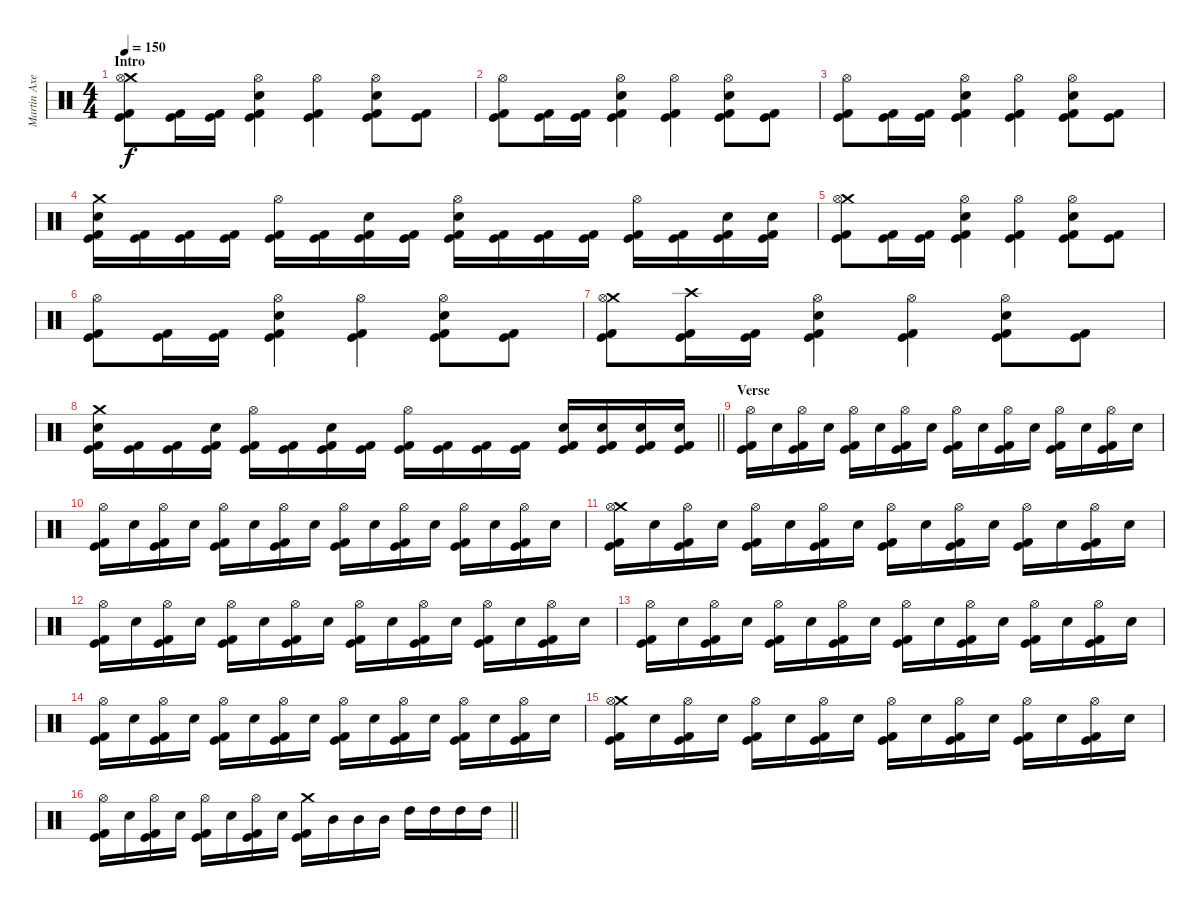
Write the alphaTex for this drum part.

\track ("Martin Axenrot" "Martin Axe") {instrument percussion}
\staff {score}
\articulation defaults
\ts (4 4)
\section ("" "Intro")
\tempo 150
\clef neutral
\ks c
("Crash medium (hit)" "Hi-Hat (open)" "Kick (hit) 2" "Kick (hit)").8{dy f} ("Kick (hit) 2" "Kick (hit)").16 ("Kick (hit) 2" "Kick (hit)").16 ("Hi-Hat (open)" "Electric Snare (hit)" "Kick (hit) 2" "Kick (hit)").4 ("Hi-Hat (open)" "Kick (hit) 2" "Kick (hit)").4 ("Hi-Hat (open)" "Electric Snare (hit)" "Kick (hit) 2" "Kick (hit)").8 ("Kick (hit) 2" "Kick (hit)").8 |
("Hi-Hat (open)" "Kick (hit) 2" "Kick (hit)").8 ("Kick (hit) 2" "Kick (hit)").16 ("Kick (hit) 2" "Kick (hit)").16 ("Hi-Hat (open)" "Electric Snare (hit)" "Kick (hit) 2" "Kick (hit)").4 ("Hi-Hat (open)" "Kick (hit) 2" "Kick (hit)").4 ("Hi-Hat (open)" "Electric Snare (hit)" "Kick (hit) 2" "Kick (hit)").8 ("Kick (hit) 2" "Kick (hit)").8 |
("Hi-Hat (open)" "Kick (hit) 2" "Kick (hit)").8 ("Kick (hit) 2" "Kick (hit)").16 ("Kick (hit) 2" "Kick (hit)").16 ("Hi-Hat (open)" "Electric Snare (hit)" "Kick (hit) 2" "Kick (hit)").4 ("Hi-Hat (open)" "Kick (hit) 2" "Kick (hit)").4 ("Hi-Hat (open)" "Electric Snare (hit)" "Kick (hit) 2" "Kick (hit)").8 ("Kick (hit) 2" "Kick (hit)").8 |
("Crash medium (hit)" "Electric Snare (hit)" "Kick (hit) 2" "Kick (hit)").16 ("Kick (hit) 2" "Kick (hit)").16 ("Kick (hit) 2" "Kick (hit)").16 ("Kick (hit) 2" "Kick (hit)").16 ("Hi-Hat (open)" "Kick (hit) 2" "Kick (hit)").16 ("Kick (hit) 2" "Kick (hit)").16 ("Electric Snare (hit)" "Kick (hit) 2" "Kick (hit)").16 ("Kick (hit) 2" "Kick (hit)").16 ("Hi-Hat (open)" "Electric Snare (hit)" "Kick (hit) 2" "Kick (hit)").16 ("Kick (hit) 2" "Kick (hit)").16 ("Kick (hit) 2" "Kick (hit)").16 ("Kick (hit) 2" "Kick (hit)").16 ("Hi-Hat (open)" "Kick (hit) 2" "Kick (hit)").16 ("Kick (hit) 2" "Kick (hit)").16 ("Electric Snare (hit)" "Kick (hit) 2" "Kick (hit)").16 ("Electric Snare (hit)" "Kick (hit) 2" "Kick (hit)").16 |
("Crash medium (hit)" "Hi-Hat (open)" "Kick (hit) 2" "Kick (hit)").8 ("Kick (hit) 2" "Kick (hit)").16 ("Kick (hit) 2" "Kick (hit)").16 ("Hi-Hat (open)" "Electric Snare (hit)" "Kick (hit) 2" "Kick (hit)").4 ("Hi-Hat (open)" "Kick (hit) 2" "Kick (hit)").4 ("Hi-Hat (open)" "Electric Snare (hit)" "Kick (hit) 2" "Kick (hit)").8 ("Kick (hit) 2" "Kick (hit)").8 |
("Hi-Hat (open)" "Kick (hit) 2" "Kick (hit)").8 ("Kick (hit) 2" "Kick (hit)").16 ("Kick (hit) 2" "Kick (hit)").16 ("Hi-Hat (open)" "Electric Snare (hit)" "Kick (hit) 2" "Kick (hit)").4 ("Hi-Hat (open)" "Kick (hit) 2" "Kick (hit)").4 ("Hi-Hat (open)" "Electric Snare (hit)" "Kick (hit) 2" "Kick (hit)").8 ("Kick (hit) 2" "Kick (hit)").8 |
("Crash medium (hit)" "Hi-Hat (open)" "Kick (hit) 2" "Kick (hit)").8 ("Crash high (hit)" "Kick (hit) 2" "Kick (hit)").16 ("Kick (hit) 2" "Kick (hit)").16 ("Hi-Hat (open)" "Electric Snare (hit)" "Kick (hit) 2" "Kick (hit)").4 ("Hi-Hat (open)" "Kick (hit) 2" "Kick (hit)").4 ("Hi-Hat (open)" "Electric Snare (hit)" "Kick (hit) 2" "Kick (hit)").8 ("Kick (hit) 2" "Kick (hit)").8 |
\barLineRight lightlight
("Crash medium (hit)" "Electric Snare (hit)" "Kick (hit) 2" "Kick (hit)").16 ("Kick (hit) 2" "Kick (hit)").16 ("Kick (hit) 2" "Kick (hit)").16 ("Electric Snare (hit)" "Kick (hit) 2" "Kick (hit)").16 ("Hi-Hat (open)" "Kick (hit) 2" "Kick (hit)").16 ("Kick (hit) 2" "Kick (hit)").16 ("Electric Snare (hit)" "Kick (hit) 2" "Kick (hit)").16 ("Kick (hit) 2" "Kick (hit)").16 ("Hi-Hat (open)" "Kick (hit) 2" "Kick (hit)").16 ("Kick (hit) 2" "Kick (hit)").16 ("Kick (hit) 2" "Kick (hit)").16 ("Kick (hit) 2" "Kick (hit)").16 ("Electric Snare (hit)" "Kick (hit) 2" "Kick (hit)").16 ("Electric Snare (hit)" "Kick (hit) 2" "Kick (hit)").16 ("Electric Snare (hit)" "Kick (hit) 2" "Kick (hit)").16 ("Electric Snare (hit)" "Kick (hit) 2" "Kick (hit)").16 |
\section ("" "Verse")
("Hi-Hat (open)" "Kick (hit) 2" "Kick (hit)").16 "Electric Snare (hit)".16 ("Hi-Hat (open)" "Kick (hit) 2" "Kick (hit)").16 "Electric Snare (hit)".16 ("Hi-Hat (open)" "Kick (hit) 2" "Kick (hit)").16 "Electric Snare (hit)".16 ("Hi-Hat (open)" "Kick (hit) 2" "Kick (hit)").16 "Electric Snare (hit)".16 ("Hi-Hat (open)" "Kick (hit) 2" "Kick (hit)").16 "Electric Snare (hit)".16 ("Hi-Hat (open)" "Kick (hit) 2" "Kick (hit)").16 "Electric Snare (hit)".16 ("Hi-Hat (open)" "Kick (hit) 2" "Kick (hit)").16 "Electric Snare (hit)".16 ("Hi-Hat (open)" "Kick (hit) 2" "Kick (hit)").16 "Electric Snare (hit)".16 |
("Hi-Hat (open)" "Kick (hit) 2" "Kick (hit)").16 "Electric Snare (hit)".16 ("Hi-Hat (open)" "Kick (hit) 2" "Kick (hit)").16 "Electric Snare (hit)".16 ("Hi-Hat (open)" "Kick (hit) 2" "Kick (hit)").16 "Electric Snare (hit)".16 ("Hi-Hat (open)" "Kick (hit) 2" "Kick (hit)").16 "Electric Snare (hit)".16 ("Hi-Hat (open)" "Kick (hit) 2" "Kick (hit)").16 "Electric Snare (hit)".16 ("Hi-Hat (open)" "Kick (hit) 2" "Kick (hit)").16 "Electric Snare (hit)".16 ("Hi-Hat (open)" "Kick (hit) 2" "Kick (hit)").16 "Electric Snare (hit)".16 ("Hi-Hat (open)" "Kick (hit) 2" "Kick (hit)").16 "Electric Snare (hit)".16 |
("Crash medium (hit)" "Hi-Hat (open)" "Kick (hit) 2" "Kick (hit)").16 "Electric Snare (hit)".16 ("Hi-Hat (open)" "Kick (hit) 2" "Kick (hit)").16 "Electric Snare (hit)".16 ("Hi-Hat (open)" "Kick (hit) 2" "Kick (hit)").16 "Electric Snare (hit)".16 ("Hi-Hat (open)" "Kick (hit) 2" "Kick (hit)").16 "Electric Snare (hit)".16 ("Hi-Hat (open)" "Kick (hit) 2" "Kick (hit)").16 "Electric Snare (hit)".16 ("Hi-Hat (open)" "Kick (hit) 2" "Kick (hit)").16 "Electric Snare (hit)".16 ("Hi-Hat (open)" "Kick (hit) 2" "Kick (hit)").16 "Electric Snare (hit)".16 ("Hi-Hat (open)" "Kick (hit) 2" "Kick (hit)").16 "Electric Snare (hit)".16 |
("Hi-Hat (open)" "Kick (hit) 2" "Kick (hit)").16 "Electric Snare (hit)".16 ("Hi-Hat (open)" "Kick (hit) 2" "Kick (hit)").16 "Electric Snare (hit)".16 ("Hi-Hat (open)" "Kick (hit) 2" "Kick (hit)").16 "Electric Snare (hit)".16 ("Hi-Hat (open)" "Kick (hit) 2" "Kick (hit)").16 "Electric Snare (hit)".16 ("Hi-Hat (open)" "Kick (hit) 2" "Kick (hit)").16 "Electric Snare (hit)".16 ("Hi-Hat (open)" "Kick (hit) 2" "Kick (hit)").16 "Electric Snare (hit)".16 ("Hi-Hat (open)" "Kick (hit) 2" "Kick (hit)").16 "Electric Snare (hit)".16 ("Hi-Hat (open)" "Kick (hit) 2" "Kick (hit)").16 "Electric Snare (hit)".16 |
("Hi-Hat (open)" "Kick (hit) 2" "Kick (hit)").16 "Electric Snare (hit)".16 ("Hi-Hat (open)" "Kick (hit) 2" "Kick (hit)").16 "Electric Snare (hit)".16 ("Hi-Hat (open)" "Kick (hit) 2" "Kick (hit)").16 "Electric Snare (hit)".16 ("Hi-Hat (open)" "Kick (hit) 2" "Kick (hit)").16 "Electric Snare (hit)".16 ("Hi-Hat (open)" "Kick (hit) 2" "Kick (hit)").16 "Electric Snare (hit)".16 ("Hi-Hat (open)" "Kick (hit) 2" "Kick (hit)").16 "Electric Snare (hit)".16 ("Hi-Hat (open)" "Kick (hit) 2" "Kick (hit)").16 "Electric Snare (hit)".16 ("Hi-Hat (open)" "Kick (hit) 2" "Kick (hit)").16 "Electric Snare (hit)".16 |
("Hi-Hat (open)" "Kick (hit) 2" "Kick (hit)").16 "Electric Snare (hit)".16 ("Hi-Hat (open)" "Kick (hit) 2" "Kick (hit)").16 "Electric Snare (hit)".16 ("Hi-Hat (open)" "Kick (hit) 2" "Kick (hit)").16 "Electric Snare (hit)".16 ("Hi-Hat (open)" "Kick (hit) 2" "Kick (hit)").16 "Electric Snare (hit)".16 ("Hi-Hat (open)" "Kick (hit) 2" "Kick (hit)").16 "Electric Snare (hit)".16 ("Hi-Hat (open)" "Kick (hit) 2" "Kick (hit)").16 "Electric Snare (hit)".16 ("Hi-Hat (open)" "Kick (hit) 2" "Kick (hit)").16 "Electric Snare (hit)".16 ("Hi-Hat (open)" "Kick (hit) 2" "Kick (hit)").16 "Electric Snare (hit)".16 |
("Crash medium (hit)" "Hi-Hat (open)" "Kick (hit) 2" "Kick (hit)").16 "Electric Snare (hit)".16 ("Hi-Hat (open)" "Kick (hit) 2" "Kick (hit)").16 "Electric Snare (hit)".16 ("Hi-Hat (open)" "Kick (hit) 2" "Kick (hit)").16 "Electric Snare (hit)".16 ("Hi-Hat (open)" "Kick (hit) 2" "Kick (hit)").16 "Electric Snare (hit)".16 ("Hi-Hat (open)" "Kick (hit) 2" "Kick (hit)").16 "Electric Snare (hit)".16 ("Hi-Hat (open)" "Kick (hit) 2" "Kick (hit)").16 "Electric Snare (hit)".16 ("Hi-Hat (open)" "Kick (hit) 2" "Kick (hit)").16 "Electric Snare (hit)".16 ("Hi-Hat (open)" "Kick (hit) 2" "Kick (hit)").16 "Electric Snare (hit)".16 |
\barLineRight lightlight
("Hi-Hat (open)" "Kick (hit) 2" "Kick (hit)").16 "Electric Snare (hit)".16 ("Hi-Hat (open)" "Kick (hit) 2" "Kick (hit)").16 "Electric Snare (hit)".16 ("Hi-Hat (open)" "Kick (hit) 2" "Kick (hit)").16 "Electric Snare (hit)".16 ("Hi-Hat (open)" "Kick (hit) 2" "Kick (hit)").16 "Electric Snare (hit)".16 ("Crash medium (hit)" "Kick (hit) 2" "Kick (hit)").16 "Mid Tom (hit)".16 "Mid Tom (hit)".16 "Mid Tom (hit)".16 "High Tom (hit)".16 "High Tom (hit)".16 "High Tom (hit)".16 "High Tom (hit)".16
